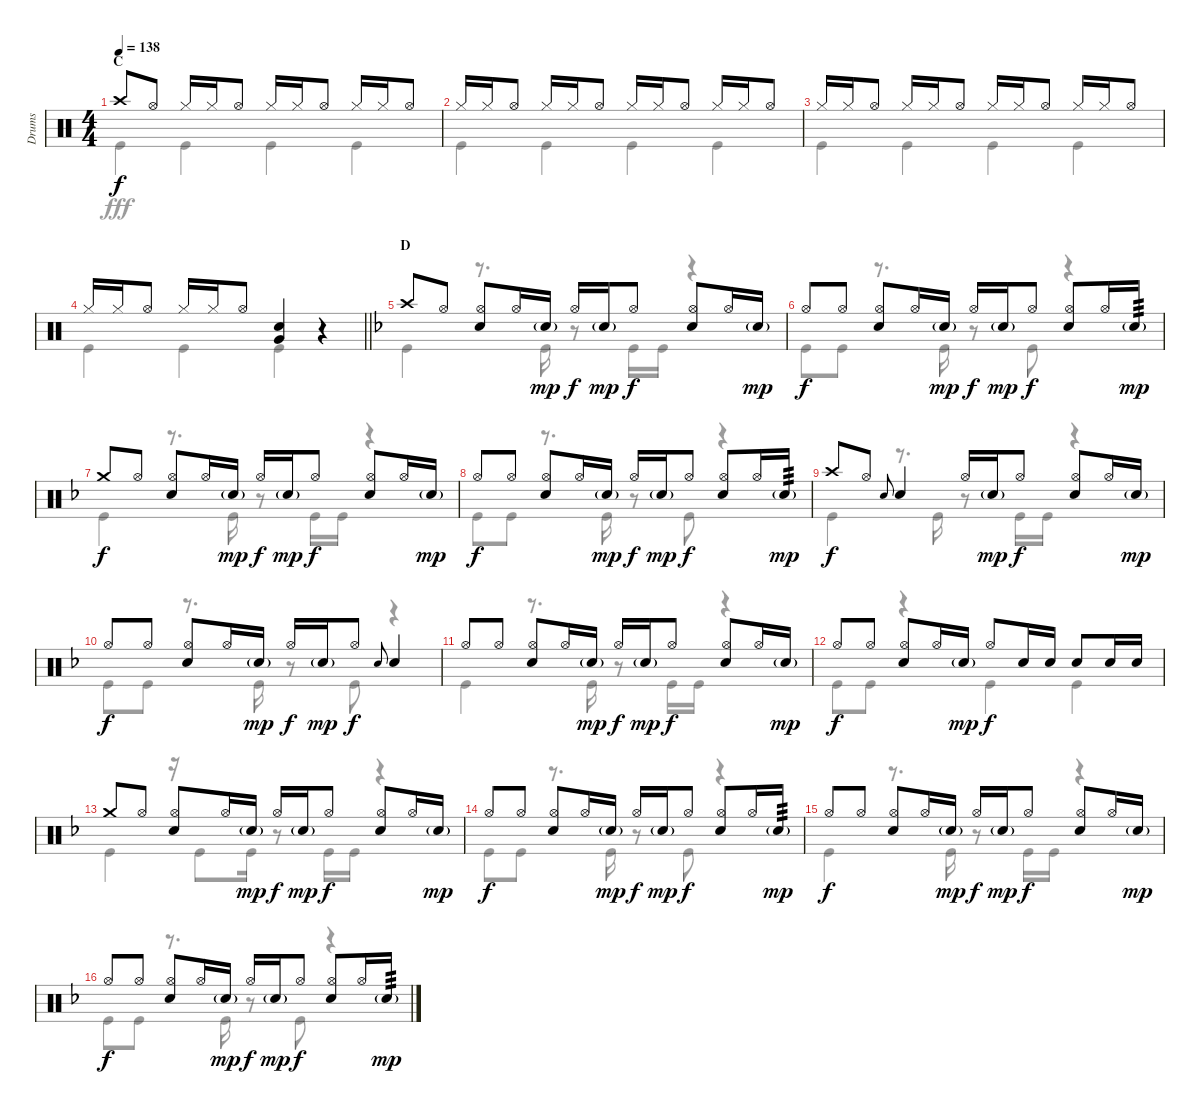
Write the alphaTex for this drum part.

\track ("Drums" "Drums") {instrument percussion}
\staff {score}
\articulation defaults
\voice
\ts (4 4)
\section ("" "C")
\tempo 138
\clef neutral
\ks c "Crash high (hit)".8{dy f} "Hi-Hat (open)".8 "Hi-Hat (closed)".16 "Hi-Hat (closed)".16 "Hi-Hat (open)".8 "Hi-Hat (closed)".16 "Hi-Hat (closed)".16 "Hi-Hat (open)".8 "Hi-Hat (closed)".16 "Hi-Hat (closed)".16 "Hi-Hat (open)".8
|
"Hi-Hat (closed)".16 "Hi-Hat (closed)".16 "Hi-Hat (open)".8 "Hi-Hat (closed)".16 "Hi-Hat (closed)".16 "Hi-Hat (open)".8 "Hi-Hat (closed)".16 "Hi-Hat (closed)".16 "Hi-Hat (open)".8 "Hi-Hat (closed)".16 "Hi-Hat (closed)".16 "Hi-Hat (open)".8 |
"Hi-Hat (closed)".16 "Hi-Hat (closed)".16 "Hi-Hat (open)".8 "Hi-Hat (closed)".16 "Hi-Hat (closed)".16 "Hi-Hat (open)".8 "Hi-Hat (closed)".16 "Hi-Hat (closed)".16 "Hi-Hat (open)".8 "Hi-Hat (closed)".16 "Hi-Hat (closed)".16 "Hi-Hat (open)".8 |
\barLineRight lightlight "Hi-Hat (closed)".16 "Hi-Hat (closed)".16 "Hi-Hat (open)".8 "Hi-Hat (closed)".16 "Hi-Hat (closed)".16 "Hi-Hat (open)".8
("Snare (hit) 2" "Very Low Tom (hit)").4 r.4 |
\section ("" "D")
\ks f "Crash high (hit)".8 "Hi-Hat (open)".8
("Hi-Hat (open)" "Snare (hit) 2").8 "Hi-Hat (open)".16 "Snare (hit) 2"{g}.16{dy mp} "Hi-Hat (open)".16{dy f} "Snare (hit) 2"{g}.16{dy mp} "Hi-Hat (open)".8{dy f} ("Hi-Hat (open)" "Snare (hit) 2").8 "Hi-Hat (open)".16 "Snare (hit) 2"{g}.16{dy mp} |
"Hi-Hat (open)".8{dy f} "Hi-Hat (open)".8 ("Hi-Hat (open)" "Snare (hit) 2").8 "Hi-Hat (open)".16 "Snare (hit) 2"{g}.16{dy mp} "Hi-Hat (open)".16{dy f} "Snare (hit) 2"{g}.16{dy mp} "Hi-Hat (open)".8{dy f} ("Hi-Hat (open)" "Snare (hit) 2").8 "Hi-Hat (open)".16 "Snare (hit) 2"{g}.16{tp 3 dy mp} |
"Crash medium (hit)".8{dy f} "Hi-Hat (open)".8 ("Hi-Hat (open)" "Snare (hit) 2").8 "Hi-Hat (open)".16 "Snare (hit) 2"{g}.16{dy mp} "Hi-Hat (open)".16{dy f} "Snare (hit) 2"{g}.16{dy mp} "Hi-Hat (open)".8{dy f} ("Hi-Hat (open)" "Snare (hit) 2").8 "Hi-Hat (open)".16 "Snare (hit) 2"{g}.16{dy mp} |
"Hi-Hat (open)".8{dy f} "Hi-Hat (open)".8 ("Hi-Hat (open)" "Snare (hit) 2").8 "Hi-Hat (open)".16 "Snare (hit) 2"{g}.16{dy mp} "Hi-Hat (open)".16{dy f} "Snare (hit) 2"{g}.16{dy mp} "Hi-Hat (open)".8{dy f} ("Hi-Hat (open)" "Snare (hit) 2").8 "Hi-Hat (open)".16 "Snare (hit) 2"{g}.16{tp 3 dy mp} |
"Crash high (hit)".8{dy f} "Hi-Hat (open)".8 "Snare (hit) 2".8{gr onbeat} "Snare (hit) 2".4 "Hi-Hat (open)".16 "Snare (hit) 2"{g}.16{dy mp} "Hi-Hat (open)".8{dy f} ("Hi-Hat (open)" "Snare (hit) 2").8 "Hi-Hat (open)".16 "Snare (hit) 2"{g}.16{dy mp} |
"Hi-Hat (open)".8{dy f} "Hi-Hat (open)".8 ("Hi-Hat (open)" "Snare (hit) 2").8 "Hi-Hat (open)".16 "Snare (hit) 2"{g}.16{dy mp} "Hi-Hat (open)".16{dy f} "Snare (hit) 2"{g}.16{dy mp} "Hi-Hat (open)".8{dy f} "Snare (hit) 2".8{gr onbeat} "Snare (hit) 2".4 |
"Hi-Hat (open)".8 "Hi-Hat (open)".8 ("Hi-Hat (open)" "Snare (hit) 2").8 "Hi-Hat (open)".16 "Snare (hit) 2"{g}.16{dy mp} "Hi-Hat (open)".16{dy f} "Snare (hit) 2"{g}.16{dy mp} "Hi-Hat (open)".8{dy f} ("Hi-Hat (open)" "Snare (hit) 2").8 "Hi-Hat (open)".16 "Snare (hit) 2"{g}.16{dy mp} |
"Hi-Hat (open)".8{dy f} "Hi-Hat (open)".8 ("Hi-Hat (open)" "Snare (hit) 2").8 "Hi-Hat (open)".16 "Snare (hit) 2"{g}.16{dy mp} "Hi-Hat (open)".8{dy f} "Snare (hit) 2".16 "Snare (hit) 2".16 "Snare (hit) 2".8 "Snare (hit) 2".16 "Snare (hit) 2".16 |
"Crash medium (hit)".8 "Hi-Hat (open)".8 ("Hi-Hat (open)" "Snare (hit) 2").8 "Hi-Hat (open)".16 "Snare (hit) 2"{g}.16{dy mp} "Hi-Hat (open)".16{dy f} "Snare (hit) 2"{g}.16{dy mp} "Hi-Hat (open)".8{dy f} ("Hi-Hat (open)" "Snare (hit) 2").8 "Hi-Hat (open)".16 "Snare (hit) 2"{g}.16{dy mp} |
"Hi-Hat (open)".8{dy f} "Hi-Hat (open)".8 ("Hi-Hat (open)" "Snare (hit) 2").8 "Hi-Hat (open)".16 "Snare (hit) 2"{g}.16{dy mp} "Hi-Hat (open)".16{dy f} "Snare (hit) 2"{g}.16{dy mp} "Hi-Hat (open)".8{dy f} ("Hi-Hat (open)" "Snare (hit) 2").8 "Hi-Hat (open)".16 "Snare (hit) 2"{g}.16{tp 3 dy mp} |
"Hi-Hat (open)".8{dy f} "Hi-Hat (open)".8 ("Hi-Hat (open)" "Snare (hit) 2").8 "Hi-Hat (open)".16 "Snare (hit) 2"{g}.16{dy mp} "Hi-Hat (open)".16{dy f} "Snare (hit) 2"{g}.16{dy mp} "Hi-Hat (open)".8{dy f} ("Hi-Hat (open)" "Snare (hit) 2").8 "Hi-Hat (open)".16 "Snare (hit) 2"{g}.16{dy mp} |
"Hi-Hat (open)".8{dy f} "Hi-Hat (open)".8 ("Hi-Hat (open)" "Snare (hit) 2").8 "Hi-Hat (open)".16 "Snare (hit) 2"{g}.16{dy mp} "Hi-Hat (open)".16{dy f} "Snare (hit) 2"{g}.16{dy mp} "Hi-Hat (open)".8{dy f} ("Hi-Hat (open)" "Snare (hit) 2").8 "Hi-Hat (open)".16 "Snare (hit) 2"{g}.16{tp 3 dy mp}
\voice
\clef neutral
\ottava regular
\simile none
\ks c "Kick (hit)".4{dy fff} "Kick (hit)".4 "Kick (hit)".4 "Kick (hit)".4
|
"Kick (hit)".4 "Kick (hit)".4 "Kick (hit)".4 "Kick (hit)".4 |
"Kick (hit)".4 "Kick (hit)".4 "Kick (hit)".4 "Kick (hit)".4 |
\barLineRight lightlight "Kick (hit)".4 "Kick (hit)".4 "Kick (hit)".4
r.4 |
\ks f "Kick (hit)".4
r.8{d} "Kick (hit)".16 r.8 "Kick (hit)".16 "Kick (hit)".16 r.4 |
"Kick (hit)".8 "Kick (hit)".8 r.8{d} "Kick (hit)".16 r.8 "Kick (hit)".8 r.4 |
"Kick (hit)".4 r.8{d} "Kick (hit)".16 r.8 "Kick (hit)".16 "Kick (hit)".16 r.4 |
"Kick (hit)".8 "Kick (hit)".8 r.8{d} "Kick (hit)".16 r.8 "Kick (hit)".8 r.4 |
"Kick (hit)".4 r.8{d} "Kick (hit)".16 r.8 "Kick (hit)".16 "Kick (hit)".16 r.4 |
"Kick (hit)".8 "Kick (hit)".8 r.8{d} "Kick (hit)".16 r.8 "Kick (hit)".8 r.4 |
"Kick (hit)".4 r.8{d} "Kick (hit)".16 r.8 "Kick (hit)".16 "Kick (hit)".16 r.4 |
"Kick (hit)".8 "Kick (hit)".8 r.4 "Kick (hit)".4 "Kick (hit)".4 |
"Kick (hit)".4 r.16 "Kick (hit)".8 "Kick (hit)".16 r.8 "Kick (hit)".16 "Kick (hit)".16 r.4 |
"Kick (hit)".8 "Kick (hit)".8 r.8{d} "Kick (hit)".16 r.8 "Kick (hit)".8 r.4 |
"Kick (hit)".4 r.8{d} "Kick (hit)".16 r.8 "Kick (hit)".16 "Kick (hit)".16 r.4 |
"Kick (hit)".8 "Kick (hit)".8 r.8{d} "Kick (hit)".16 r.8 "Kick (hit)".8 r.4
